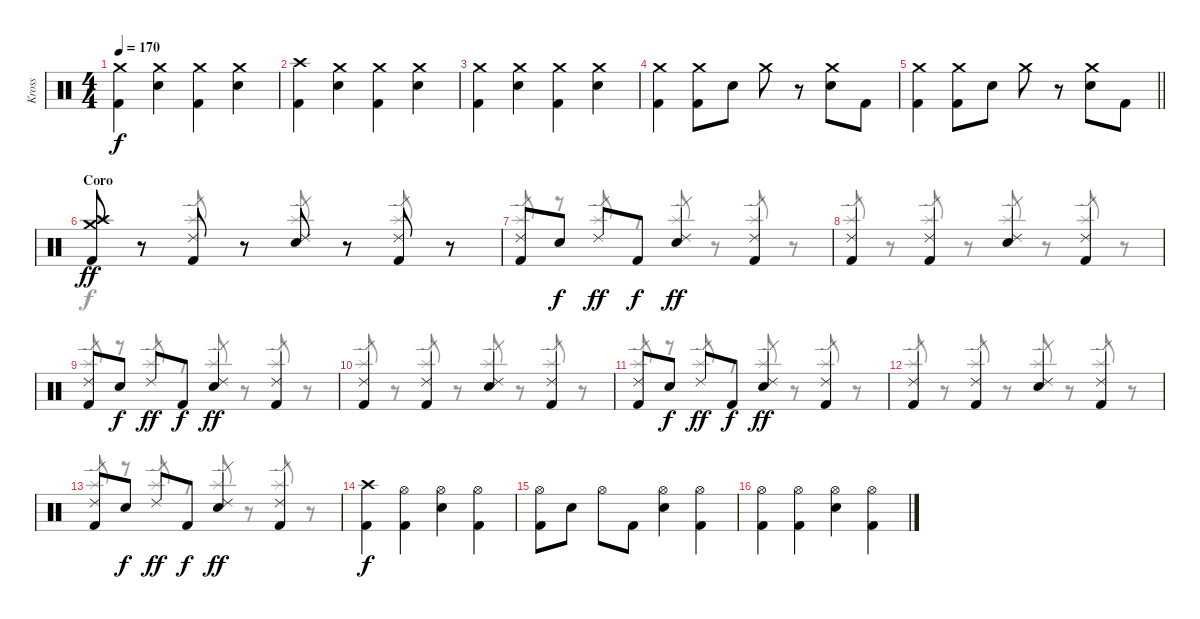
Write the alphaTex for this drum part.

\track ("Kross" "Kross") {instrument percussion}
\staff {score}
\articulation defaults
\voice
\ts (4 4)
\tempo 170
\clef neutral
\ks c
("Crash medium (hit)" "Kick (hit) 2").4{dy f} ("Crash medium (hit)" "Electric Snare (hit)").4 ("Crash medium (hit)" "Kick (hit) 2").4 ("Crash medium (hit)" "Electric Snare (hit)").4 |
("Crash high (hit)" "Kick (hit) 2").4 ("Crash medium (hit)" "Electric Snare (hit)").4 ("Crash medium (hit)" "Kick (hit) 2").4 ("Crash medium (hit)" "Electric Snare (hit)").4 |
("Crash medium (hit)" "Kick (hit) 2").4 ("Crash medium (hit)" "Electric Snare (hit)").4 ("Crash medium (hit)" "Kick (hit) 2").4 ("Crash medium (hit)" "Electric Snare (hit)").4 |
("Crash medium (hit)" "Kick (hit) 2").4 ("Crash medium (hit)" "Kick (hit) 2").8 "Electric Snare (hit)".8 "Crash medium (hit)".8 r.8 ("Crash medium (hit)" "Electric Snare (hit)").8 "Kick (hit) 2".8 |
\barLineRight lightlight
("Crash medium (hit)" "Kick (hit) 2").4 ("Crash medium (hit)" "Kick (hit) 2").8 "Electric Snare (hit)".8 "Crash medium (hit)".8 r.8 ("Crash medium (hit)" "Electric Snare (hit)").8 "Kick (hit) 2".8 |
\section ("" "Coro")
("Crash high (hit)" "Crash medium (hit)" "Kick (hit) 2").8{dy ff} r.8 ("Ride (edge) 2" "Kick (hit) 2").8 r.8 ("Ride (edge) 2" "Electric Snare (hit)").8 r.8 ("Ride (edge) 2" "Kick (hit) 2").8 r.8 |
("Ride (edge) 2" "Kick (hit) 2").8 "Electric Snare (hit)".8{dy f} "Ride (edge) 2".8{dy ff} "Kick (hit) 2".8{dy f} ("Ride (edge) 2" "Electric Snare (hit)").4{dy ff} ("Ride (edge) 2" "Kick (hit) 2").4 |
("Ride (edge) 2" "Kick (hit) 2").4 ("Ride (edge) 2" "Kick (hit) 2").4 ("Ride (edge) 2" "Electric Snare (hit)").4 ("Ride (edge) 2" "Kick (hit) 2").4 |
("Ride (edge) 2" "Kick (hit) 2").8 "Electric Snare (hit)".8{dy f} "Ride (edge) 2".8{dy ff} "Kick (hit) 2".8{dy f} ("Ride (edge) 2" "Electric Snare (hit)").4{dy ff} ("Ride (edge) 2" "Kick (hit) 2").4 |
("Ride (edge) 2" "Kick (hit) 2").4 ("Ride (edge) 2" "Kick (hit) 2").4 ("Ride (edge) 2" "Electric Snare (hit)").4 ("Ride (edge) 2" "Kick (hit) 2").4 |
("Ride (edge) 2" "Kick (hit) 2").8 "Electric Snare (hit)".8{dy f} "Ride (edge) 2".8{dy ff} "Kick (hit) 2".8{dy f} ("Ride (edge) 2" "Electric Snare (hit)").4{dy ff} ("Ride (edge) 2" "Kick (hit) 2").4 |
("Ride (edge) 2" "Kick (hit) 2").4 ("Ride (edge) 2" "Kick (hit) 2").4 ("Ride (edge) 2" "Electric Snare (hit)").4 ("Ride (edge) 2" "Kick (hit) 2").4 |
("Ride (edge) 2" "Kick (hit) 2").8 "Electric Snare (hit)".8{dy f} "Ride (edge) 2".8{dy ff} "Kick (hit) 2".8{dy f} ("Ride (edge) 2" "Electric Snare (hit)").4{dy ff} ("Ride (edge) 2" "Kick (hit) 2").4 |
("Crash high (hit)" "Kick (hit) 2").4{dy f} ("Hi-Hat (open)" "Kick (hit) 2").4 ("Hi-Hat (open)" "Electric Snare (hit)").4 ("Hi-Hat (open)" "Kick (hit) 2").4 |
("Hi-Hat (open)" "Kick (hit) 2").8 "Electric Snare (hit)".8 "Hi-Hat (open)".8 "Kick (hit) 2".8 ("Hi-Hat (open)" "Electric Snare (hit)").4 ("Hi-Hat (open)" "Kick (hit) 2").4 |
("Hi-Hat (open)" "Kick (hit) 2").4 ("Hi-Hat (open)" "Kick (hit) 2").4 ("Hi-Hat (open)" "Electric Snare (hit)").4 ("Hi-Hat (open)" "Kick (hit) 2").4
\voice
\clef neutral
\ottava regular
\simile none
\ks c
|
|
|
|
\barLineRight lightlight
|
"Splash (hit)".8{beam Up} r.8 "Splash (hit)".8{dy f beam Up} r.8 "Splash (hit)".8{beam Up} r.8 "Splash (hit)".8{beam Up} r.8 |
"Splash (hit)".8{beam Up} r.8 "Splash (hit)".8{beam Up} r.8 "Splash (hit)".8{beam Up} r.8 "Splash (hit)".8{beam Up} r.8 |
"Splash (hit)".8{beam Up} r.8 "Splash (hit)".8{beam Up} r.8 "Splash (hit)".8{beam Up} r.8 "Splash (hit)".8{beam Up} r.8 |
"Splash (hit)".8{beam Up} r.8 "Splash (hit)".8{beam Up} r.8 "Splash (hit)".8{beam Up} r.8 "Splash (hit)".8{beam Up} r.8 |
"Splash (hit)".8{beam Up} r.8 "Splash (hit)".8{beam Up} r.8 "Splash (hit)".8{beam Up} r.8 "Splash (hit)".8{beam Up} r.8 |
"Splash (hit)".8{beam Up} r.8 "Splash (hit)".8{beam Up} r.8 "Splash (hit)".8{beam Up} r.8 "Splash (hit)".8{beam Up} r.8 |
"Splash (hit)".8{beam Up} r.8 "Splash (hit)".8{beam Up} r.8 "Splash (hit)".8{beam Up} r.8 "Splash (hit)".8{beam Up} r.8 |
"Splash (hit)".8{beam Up} r.8 "Splash (hit)".8{beam Up} r.8 "Splash (hit)".8{beam Up} r.8 "Splash (hit)".8{beam Up} r.8 |
|
|
